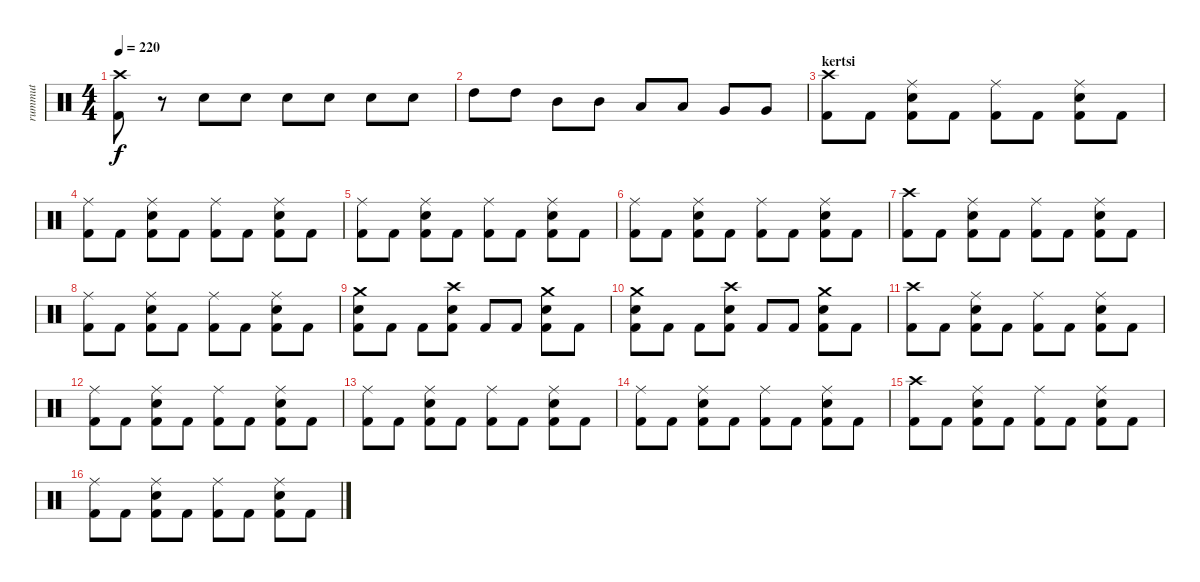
\track ("rummut" "rummut") {instrument percussion}
\staff {score}
\articulation defaults
\ts (4 4)
\tempo 220
\clef neutral
\ks c
("Crash high (hit)" "Kick (hit) 2").8{dy f} r.8 "Electric Snare (hit)".8 "Electric Snare (hit)".8 "Electric Snare (hit)".8 "Electric Snare (hit)".8 "Electric Snare (hit)".8 "Electric Snare (hit)".8 |
"High Tom (hit)".8 "High Tom (hit)".8 "Mid Tom (hit)".8 "Mid Tom (hit)".8 "Low Tom (hit)".8 "Low Tom (hit)".8 "Very Low Tom (hit)".8 "Very Low Tom (hit)".8 |
\section ("" "kertsi")
("Crash high (hit)" "Kick (hit) 2").8 "Kick (hit) 2".8 ("Ride (middle)" "Electric Snare (hit)" "Kick (hit) 2").8 "Kick (hit) 2".8 ("Ride (middle)" "Kick (hit) 2").8 "Kick (hit) 2".8 ("Ride (middle)" "Electric Snare (hit)" "Kick (hit) 2").8 "Kick (hit) 2".8 |
("Ride (middle)" "Kick (hit) 2").8 "Kick (hit) 2".8 ("Ride (middle)" "Electric Snare (hit)" "Kick (hit) 2").8 "Kick (hit) 2".8 ("Ride (middle)" "Kick (hit) 2").8 "Kick (hit) 2".8 ("Ride (middle)" "Electric Snare (hit)" "Kick (hit) 2").8 "Kick (hit) 2".8 |
("Ride (middle)" "Kick (hit) 2").8 "Kick (hit) 2".8 ("Ride (middle)" "Electric Snare (hit)" "Kick (hit) 2").8 "Kick (hit) 2".8 ("Ride (middle)" "Kick (hit) 2").8 "Kick (hit) 2".8 ("Ride (middle)" "Electric Snare (hit)" "Kick (hit) 2").8 "Kick (hit) 2".8 |
("Ride (middle)" "Kick (hit) 2").8 "Kick (hit) 2".8 ("Ride (middle)" "Electric Snare (hit)" "Kick (hit) 2").8 "Kick (hit) 2".8 ("Ride (middle)" "Kick (hit) 2").8 "Kick (hit) 2".8 ("Ride (middle)" "Electric Snare (hit)" "Kick (hit) 2").8 "Kick (hit) 2".8 |
("Crash high (hit)" "Kick (hit) 2").8 "Kick (hit) 2".8 ("Ride (middle)" "Electric Snare (hit)" "Kick (hit) 2").8 "Kick (hit) 2".8 ("Ride (middle)" "Kick (hit) 2").8 "Kick (hit) 2".8 ("Ride (middle)" "Electric Snare (hit)" "Kick (hit) 2").8 "Kick (hit) 2".8 |
("Ride (middle)" "Kick (hit) 2").8 "Kick (hit) 2".8 ("Ride (middle)" "Electric Snare (hit)" "Kick (hit) 2").8 "Kick (hit) 2".8 ("Ride (middle)" "Kick (hit) 2").8 "Kick (hit) 2".8 ("Ride (middle)" "Electric Snare (hit)" "Kick (hit) 2").8 "Kick (hit) 2".8 |
("Crash medium (hit)" "Electric Snare (hit)" "Kick (hit) 2").8 "Kick (hit) 2".8 "Kick (hit) 2".8 ("Crash high (hit)" "Electric Snare (hit)" "Kick (hit) 2").8 "Kick (hit) 2".8 "Kick (hit) 2".8 ("Crash medium (hit)" "Electric Snare (hit)" "Kick (hit) 2").8 "Kick (hit) 2".8 |
("Crash medium (hit)" "Electric Snare (hit)" "Kick (hit) 2").8 "Kick (hit) 2".8 "Kick (hit) 2".8 ("Crash high (hit)" "Electric Snare (hit)" "Kick (hit) 2").8 "Kick (hit) 2".8 "Kick (hit) 2".8 ("Crash medium (hit)" "Electric Snare (hit)" "Kick (hit) 2").8 "Kick (hit) 2".8 |
("Crash high (hit)" "Kick (hit) 2").8 "Kick (hit) 2".8 ("Ride (middle)" "Electric Snare (hit)" "Kick (hit) 2").8 "Kick (hit) 2".8 ("Ride (middle)" "Kick (hit) 2").8 "Kick (hit) 2".8 ("Ride (middle)" "Electric Snare (hit)" "Kick (hit) 2").8 "Kick (hit) 2".8 |
("Ride (middle)" "Kick (hit) 2").8 "Kick (hit) 2".8 ("Ride (middle)" "Electric Snare (hit)" "Kick (hit) 2").8 "Kick (hit) 2".8 ("Ride (middle)" "Kick (hit) 2").8 "Kick (hit) 2".8 ("Ride (middle)" "Electric Snare (hit)" "Kick (hit) 2").8 "Kick (hit) 2".8 |
("Ride (middle)" "Kick (hit) 2").8 "Kick (hit) 2".8 ("Ride (middle)" "Electric Snare (hit)" "Kick (hit) 2").8 "Kick (hit) 2".8 ("Ride (middle)" "Kick (hit) 2").8 "Kick (hit) 2".8 ("Ride (middle)" "Electric Snare (hit)" "Kick (hit) 2").8 "Kick (hit) 2".8 |
("Ride (middle)" "Kick (hit) 2").8 "Kick (hit) 2".8 ("Ride (middle)" "Electric Snare (hit)" "Kick (hit) 2").8 "Kick (hit) 2".8 ("Ride (middle)" "Kick (hit) 2").8 "Kick (hit) 2".8 ("Ride (middle)" "Electric Snare (hit)" "Kick (hit) 2").8 "Kick (hit) 2".8 |
("Crash high (hit)" "Kick (hit) 2").8 "Kick (hit) 2".8 ("Ride (middle)" "Electric Snare (hit)" "Kick (hit) 2").8 "Kick (hit) 2".8 ("Ride (middle)" "Kick (hit) 2").8 "Kick (hit) 2".8 ("Ride (middle)" "Electric Snare (hit)" "Kick (hit) 2").8 "Kick (hit) 2".8 |
("Ride (middle)" "Kick (hit) 2").8 "Kick (hit) 2".8 ("Ride (middle)" "Electric Snare (hit)" "Kick (hit) 2").8 "Kick (hit) 2".8 ("Ride (middle)" "Kick (hit) 2").8 "Kick (hit) 2".8 ("Ride (middle)" "Electric Snare (hit)" "Kick (hit) 2").8 "Kick (hit) 2".8
